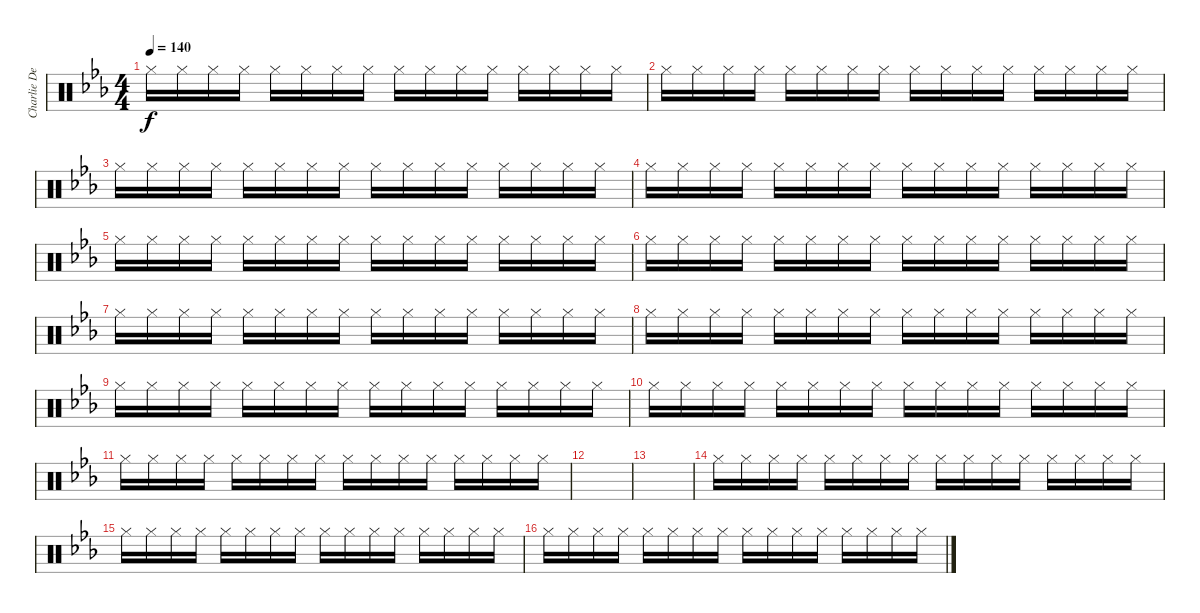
\track ("Charlie Devil" "Charlie De") {instrument percussion}
\staff {score}
\articulation defaults
\ts (4 4)
\tempo 140
\clef neutral
\ks eb "Hi-Hat (closed)".16{dy f} "Hi-Hat (closed)".16 "Hi-Hat (closed)".16 "Hi-Hat (closed)".16 "Hi-Hat (closed)".16 "Hi-Hat (closed)".16 "Hi-Hat (closed)".16 "Hi-Hat (closed)".16 "Hi-Hat (closed)".16 "Hi-Hat (closed)".16 "Hi-Hat (closed)".16 "Hi-Hat (closed)".16 "Hi-Hat (closed)".16 "Hi-Hat (closed)".16 "Hi-Hat (closed)".16 "Hi-Hat (closed)".16
|
"Hi-Hat (closed)".16 "Hi-Hat (closed)".16 "Hi-Hat (closed)".16 "Hi-Hat (closed)".16 "Hi-Hat (closed)".16 "Hi-Hat (closed)".16 "Hi-Hat (closed)".16 "Hi-Hat (closed)".16 "Hi-Hat (closed)".16 "Hi-Hat (closed)".16 "Hi-Hat (closed)".16 "Hi-Hat (closed)".16 "Hi-Hat (closed)".16 "Hi-Hat (closed)".16 "Hi-Hat (closed)".16 "Hi-Hat (closed)".16 |
"Hi-Hat (closed)".16 "Hi-Hat (closed)".16 "Hi-Hat (closed)".16 "Hi-Hat (closed)".16 "Hi-Hat (closed)".16 "Hi-Hat (closed)".16 "Hi-Hat (closed)".16 "Hi-Hat (closed)".16 "Hi-Hat (closed)".16 "Hi-Hat (closed)".16 "Hi-Hat (closed)".16 "Hi-Hat (closed)".16 "Hi-Hat (closed)".16 "Hi-Hat (closed)".16 "Hi-Hat (closed)".16 "Hi-Hat (closed)".16 |
"Hi-Hat (closed)".16 "Hi-Hat (closed)".16 "Hi-Hat (closed)".16 "Hi-Hat (closed)".16 "Hi-Hat (closed)".16 "Hi-Hat (closed)".16 "Hi-Hat (closed)".16 "Hi-Hat (closed)".16 "Hi-Hat (closed)".16 "Hi-Hat (closed)".16 "Hi-Hat (closed)".16 "Hi-Hat (closed)".16 "Hi-Hat (closed)".16 "Hi-Hat (closed)".16 "Hi-Hat (closed)".16 "Hi-Hat (closed)".16 |
"Hi-Hat (closed)".16 "Hi-Hat (closed)".16 "Hi-Hat (closed)".16 "Hi-Hat (closed)".16 "Hi-Hat (closed)".16 "Hi-Hat (closed)".16 "Hi-Hat (closed)".16 "Hi-Hat (closed)".16 "Hi-Hat (closed)".16 "Hi-Hat (closed)".16 "Hi-Hat (closed)".16 "Hi-Hat (closed)".16 "Hi-Hat (closed)".16 "Hi-Hat (closed)".16 "Hi-Hat (closed)".16 "Hi-Hat (closed)".16 |
"Hi-Hat (closed)".16 "Hi-Hat (closed)".16 "Hi-Hat (closed)".16 "Hi-Hat (closed)".16 "Hi-Hat (closed)".16 "Hi-Hat (closed)".16 "Hi-Hat (closed)".16 "Hi-Hat (closed)".16 "Hi-Hat (closed)".16 "Hi-Hat (closed)".16 "Hi-Hat (closed)".16 "Hi-Hat (closed)".16 "Hi-Hat (closed)".16 "Hi-Hat (closed)".16 "Hi-Hat (closed)".16 "Hi-Hat (closed)".16 |
"Hi-Hat (closed)".16 "Hi-Hat (closed)".16 "Hi-Hat (closed)".16 "Hi-Hat (closed)".16 "Hi-Hat (closed)".16 "Hi-Hat (closed)".16 "Hi-Hat (closed)".16 "Hi-Hat (closed)".16 "Hi-Hat (closed)".16 "Hi-Hat (closed)".16 "Hi-Hat (closed)".16 "Hi-Hat (closed)".16 "Hi-Hat (closed)".16 "Hi-Hat (closed)".16 "Hi-Hat (closed)".16 "Hi-Hat (closed)".16 |
"Hi-Hat (closed)".16 "Hi-Hat (closed)".16 "Hi-Hat (closed)".16 "Hi-Hat (closed)".16 "Hi-Hat (closed)".16 "Hi-Hat (closed)".16 "Hi-Hat (closed)".16 "Hi-Hat (closed)".16 "Hi-Hat (closed)".16 "Hi-Hat (closed)".16 "Hi-Hat (closed)".16 "Hi-Hat (closed)".16 "Hi-Hat (closed)".16 "Hi-Hat (closed)".16 "Hi-Hat (closed)".16 "Hi-Hat (closed)".16 |
"Hi-Hat (closed)".16 "Hi-Hat (closed)".16 "Hi-Hat (closed)".16 "Hi-Hat (closed)".16 "Hi-Hat (closed)".16 "Hi-Hat (closed)".16 "Hi-Hat (closed)".16 "Hi-Hat (closed)".16 "Hi-Hat (closed)".16 "Hi-Hat (closed)".16 "Hi-Hat (closed)".16 "Hi-Hat (closed)".16 "Hi-Hat (closed)".16 "Hi-Hat (closed)".16 "Hi-Hat (closed)".16 "Hi-Hat (closed)".16 |
"Hi-Hat (closed)".16 "Hi-Hat (closed)".16 "Hi-Hat (closed)".16 "Hi-Hat (closed)".16 "Hi-Hat (closed)".16 "Hi-Hat (closed)".16 "Hi-Hat (closed)".16 "Hi-Hat (closed)".16 "Hi-Hat (closed)".16 "Hi-Hat (closed)".16 "Hi-Hat (closed)".16 "Hi-Hat (closed)".16 "Hi-Hat (closed)".16 "Hi-Hat (closed)".16 "Hi-Hat (closed)".16 "Hi-Hat (closed)".16 |
"Hi-Hat (closed)".16 "Hi-Hat (closed)".16 "Hi-Hat (closed)".16 "Hi-Hat (closed)".16 "Hi-Hat (closed)".16 "Hi-Hat (closed)".16 "Hi-Hat (closed)".16 "Hi-Hat (closed)".16 "Hi-Hat (closed)".16 "Hi-Hat (closed)".16 "Hi-Hat (closed)".16 "Hi-Hat (closed)".16 "Hi-Hat (closed)".16 "Hi-Hat (closed)".16 "Hi-Hat (closed)".16 "Hi-Hat (closed)".16 |
|
|
"Hi-Hat (closed)".16 "Hi-Hat (closed)".16 "Hi-Hat (closed)".16 "Hi-Hat (closed)".16 "Hi-Hat (closed)".16 "Hi-Hat (closed)".16 "Hi-Hat (closed)".16 "Hi-Hat (closed)".16 "Hi-Hat (closed)".16 "Hi-Hat (closed)".16 "Hi-Hat (closed)".16 "Hi-Hat (closed)".16 "Hi-Hat (closed)".16 "Hi-Hat (closed)".16 "Hi-Hat (closed)".16 "Hi-Hat (closed)".16 |
"Hi-Hat (closed)".16 "Hi-Hat (closed)".16 "Hi-Hat (closed)".16 "Hi-Hat (closed)".16 "Hi-Hat (closed)".16 "Hi-Hat (closed)".16 "Hi-Hat (closed)".16 "Hi-Hat (closed)".16 "Hi-Hat (closed)".16 "Hi-Hat (closed)".16 "Hi-Hat (closed)".16 "Hi-Hat (closed)".16 "Hi-Hat (closed)".16 "Hi-Hat (closed)".16 "Hi-Hat (closed)".16 "Hi-Hat (closed)".16 |
"Hi-Hat (closed)".16 "Hi-Hat (closed)".16 "Hi-Hat (closed)".16 "Hi-Hat (closed)".16 "Hi-Hat (closed)".16 "Hi-Hat (closed)".16 "Hi-Hat (closed)".16 "Hi-Hat (closed)".16 "Hi-Hat (closed)".16 "Hi-Hat (closed)".16 "Hi-Hat (closed)".16 "Hi-Hat (closed)".16 "Hi-Hat (closed)".16 "Hi-Hat (closed)".16 "Hi-Hat (closed)".16 "Hi-Hat (closed)".16
